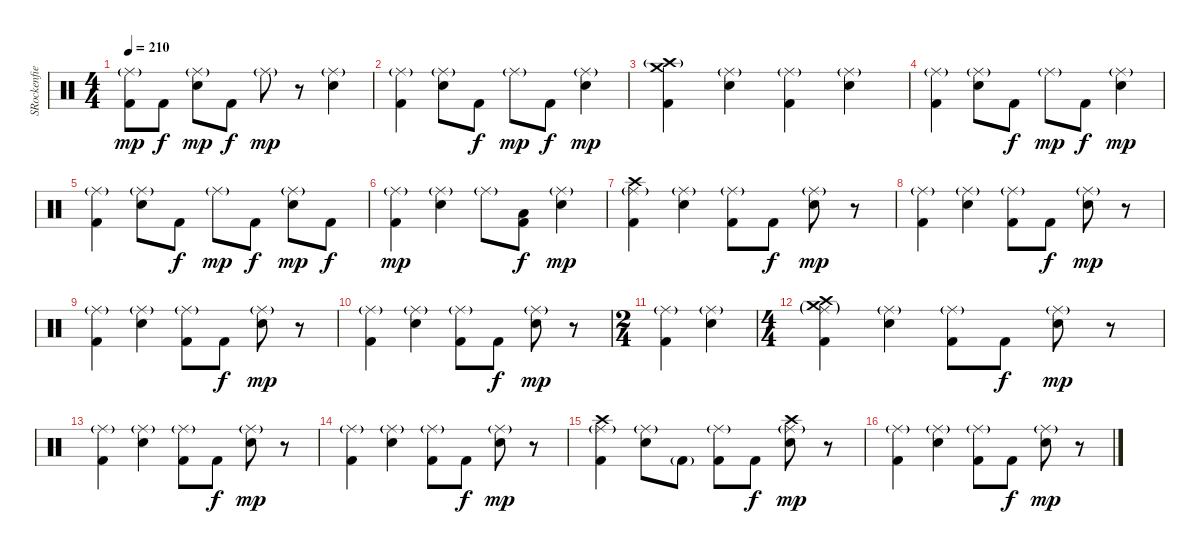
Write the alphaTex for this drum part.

\track ("SRockenfield" "SRockenfie") {instrument percussion}
\staff {score}
\articulation defaults
\ts (4 4)
\tempo 210
\clef neutral
\ks c
("Ride (middle)"{g} "Kick (hit) 2").8{dy mp} "Kick (hit) 2".8{dy f} ("Ride (middle)"{g} "Electric Snare (hit)").8{dy mp} "Kick (hit) 2".8{dy f} "Ride (middle)"{g}.8{dy mp} r.8 ("Ride (middle)"{g} "Electric Snare (hit)").4 |
("Ride (middle)"{g} "Kick (hit) 2").4 ("Ride (middle)"{g} "Electric Snare (hit)").8 "Kick (hit) 2".8{dy f} "Ride (middle)"{g}.8{dy mp} "Kick (hit) 2".8{dy f} ("Ride (middle)"{g} "Electric Snare (hit)").4{dy mp} |
("Crash high (hit)"{g} "Crash medium (hit)" "Kick (hit) 2").4 ("Ride (middle)"{g} "Electric Snare (hit)").4 ("Ride (middle)"{g} "Kick (hit) 2").4 ("Ride (middle)"{g} "Electric Snare (hit)").4 |
("Ride (middle)"{g} "Kick (hit) 2").4 ("Ride (middle)"{g} "Electric Snare (hit)").8 "Kick (hit) 2".8{dy f} "Ride (middle)"{g}.8{dy mp} "Kick (hit) 2".8{dy f} ("Ride (middle)"{g} "Electric Snare (hit)").4{dy mp} |
("Ride (middle)"{g} "Kick (hit) 2").4 ("Ride (middle)"{g} "Electric Snare (hit)").8 "Kick (hit) 2".8{dy f} "Ride (middle)"{g}.8{dy mp} "Kick (hit) 2".8{dy f} ("Ride (middle)"{g} "Electric Snare (hit)").8{dy mp} "Kick (hit) 2".8{dy f} |
("Ride (middle)"{g} "Kick (hit) 2").4{dy mp} ("Ride (middle)"{g} "Electric Snare (hit)").4 "Ride (middle)"{g}.8 ("Low Floor Tom (hit)" "Kick (hit) 2").8{dy f} ("Ride (middle)"{g} "Electric Snare (hit)").4{dy mp} |
("Ride (middle)"{g} "Crash high (hit)" "Kick (hit) 2").4 ("Ride (middle)"{g} "Electric Snare (hit)").4 ("Ride (middle)"{g} "Kick (hit) 2").8 "Kick (hit) 2".8{dy f} ("Ride (middle)"{g} "Electric Snare (hit)").8{dy mp} r.8 |
("Ride (middle)"{g} "Kick (hit) 2").4 ("Ride (middle)"{g} "Electric Snare (hit)").4 ("Ride (middle)"{g} "Kick (hit) 2").8 "Kick (hit) 2".8{dy f} ("Ride (middle)"{g} "Electric Snare (hit)").8{dy mp} r.8 |
("Ride (middle)"{g} "Kick (hit) 2").4 ("Ride (middle)"{g} "Electric Snare (hit)").4 ("Ride (middle)"{g} "Kick (hit) 2").8 "Kick (hit) 2".8{dy f} ("Ride (middle)"{g} "Electric Snare (hit)").8{dy mp} r.8 |
("Ride (middle)"{g} "Kick (hit) 2").4 ("Ride (middle)"{g} "Electric Snare (hit)").4 ("Ride (middle)"{g} "Kick (hit) 2").8 "Kick (hit) 2".8{dy f} ("Ride (middle)"{g} "Electric Snare (hit)").8{dy mp} r.8 |
\ts (2 4)
("Ride (middle)"{g} "Kick (hit) 2").4 ("Ride (middle)"{g} "Electric Snare (hit)").4 |
\ts (4 4)
("Ride (middle)"{g} "Crash high (hit)" "Crash medium (hit)"{g} "Kick (hit) 2").4 ("Ride (middle)"{g} "Electric Snare (hit)").4 ("Ride (middle)"{g} "Kick (hit) 2").8 "Kick (hit) 2".8{dy f} ("Ride (middle)"{g} "Electric Snare (hit)").8{dy mp} r.8 |
("Ride (middle)"{g} "Kick (hit) 2").4 ("Ride (middle)"{g} "Electric Snare (hit)").4 ("Ride (middle)"{g} "Kick (hit) 2").8 "Kick (hit) 2".8{dy f} ("Ride (middle)"{g} "Electric Snare (hit)").8{dy mp} r.8 |
("Ride (middle)"{g} "Kick (hit) 2").4 ("Ride (middle)"{g} "Electric Snare (hit)").4 ("Ride (middle)"{g} "Kick (hit) 2").8 "Kick (hit) 2".8{dy f} ("Ride (middle)"{g} "Electric Snare (hit)").8{dy mp} r.8 |
("Ride (middle)"{g} "Crash high (hit)" "Kick (hit) 2").4 ("Ride (middle)"{g} "Electric Snare (hit)").8 "Kick (hit) 2"{g}.8 ("Ride (middle)"{g} "Kick (hit) 2").8 "Kick (hit) 2".8{dy f} ("Ride (middle)"{g} "Crash high (hit)" "Electric Snare (hit)").8{dy mp} r.8 |
("Ride (middle)"{g} "Kick (hit) 2").4 ("Ride (middle)"{g} "Electric Snare (hit)").4 ("Ride (middle)"{g} "Kick (hit) 2").8 "Kick (hit) 2".8{dy f} ("Ride (middle)"{g} "Electric Snare (hit)").8{dy mp} r.8
